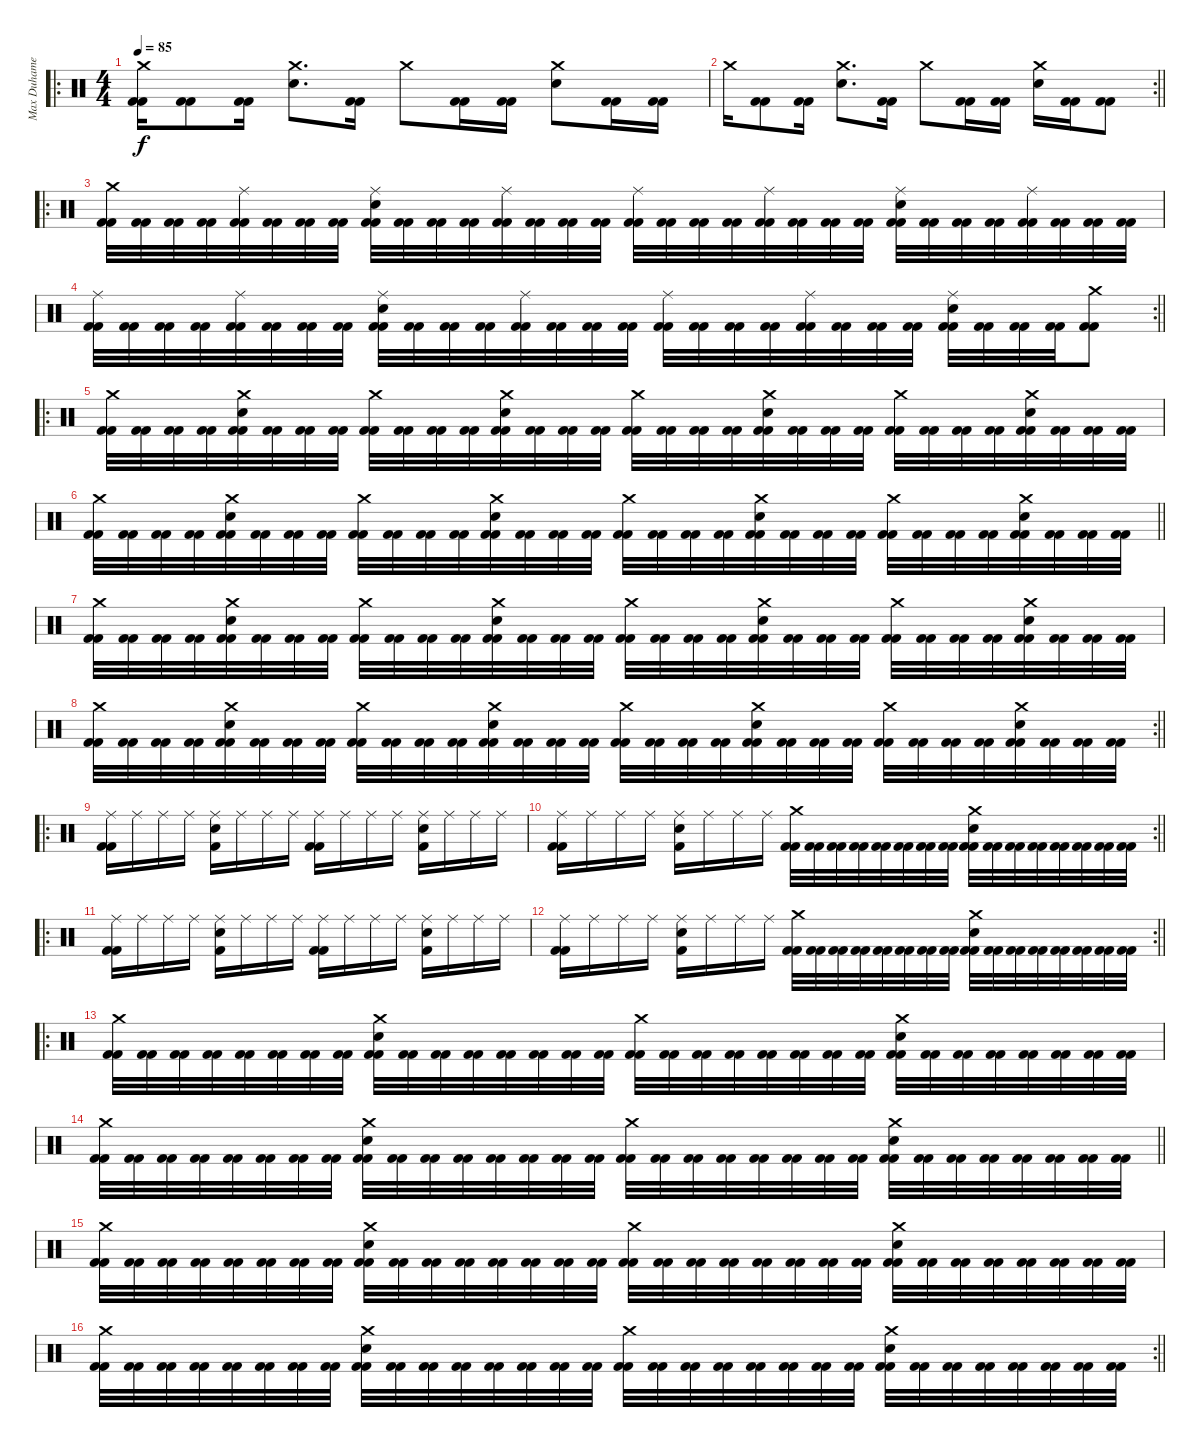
\track ("Max Duhamel" "Max Duhame") {instrument percussion}
\staff {score}
\articulation defaults
\ro
\ts (4 4)
\tempo 85
\clef neutral
\ks c
("Crash medium (hit)" "Kick (hit) 2" "Kick (hit) 2").16{dy f} ("Kick (hit) 2" "Kick (hit) 2").8 ("Kick (hit) 2" "Kick (hit) 2").16 ("Crash medium (hit)" "Snare (hit) 2").8{d} ("Kick (hit) 2" "Kick (hit) 2").16 "Crash medium (hit)".8 ("Kick (hit) 2" "Kick (hit) 2").16 ("Kick (hit) 2" "Kick (hit) 2").16 ("Crash medium (hit)" "Snare (hit) 2").8 ("Kick (hit) 2" "Kick (hit) 2").16 ("Kick (hit) 2" "Kick (hit) 2").16 |
\rc 2
\barLineRight lightlight "Crash medium (hit)".16
("Kick (hit) 2" "Kick (hit) 2").8 ("Kick (hit) 2" "Kick (hit) 2").16 ("Crash medium (hit)" "Snare (hit) 2").8{d} ("Kick (hit) 2" "Kick (hit) 2").16 "Crash medium (hit)".8 ("Kick (hit) 2" "Kick (hit) 2").16 ("Kick (hit) 2" "Kick (hit) 2").16 ("Crash medium (hit)" "Snare (hit) 2").16 ("Kick (hit) 2" "Kick (hit) 2").16 ("Kick (hit) 2" "Kick (hit) 2").8 |
\ro
("Crash medium (hit)" "Kick (hit) 2" "Kick (hit) 2").32 ("Kick (hit) 2" "Kick (hit) 2").32 ("Kick (hit) 2" "Kick (hit) 2").32 ("Kick (hit) 2" "Kick (hit) 2").32 ("Ride (middle)" "Kick (hit) 2" "Kick (hit) 2").32 ("Kick (hit) 2" "Kick (hit) 2").32 ("Kick (hit) 2" "Kick (hit) 2").32 ("Kick (hit) 2" "Kick (hit) 2").32 ("Ride (middle)" "Snare (hit) 2" "Kick (hit) 2" "Kick (hit) 2").32 ("Kick (hit) 2" "Kick (hit) 2").32 ("Kick (hit) 2" "Kick (hit) 2").32 ("Kick (hit) 2" "Kick (hit) 2").32 ("Ride (middle)" "Kick (hit) 2" "Kick (hit) 2").32 ("Kick (hit) 2" "Kick (hit) 2").32 ("Kick (hit) 2" "Kick (hit) 2").32 ("Kick (hit) 2" "Kick (hit) 2").32 ("Ride (middle)" "Kick (hit) 2" "Kick (hit) 2").32 ("Kick (hit) 2" "Kick (hit) 2").32 ("Kick (hit) 2" "Kick (hit) 2").32 ("Kick (hit) 2" "Kick (hit) 2").32 ("Ride (middle)" "Kick (hit) 2" "Kick (hit) 2").32 ("Kick (hit) 2" "Kick (hit) 2").32 ("Kick (hit) 2" "Kick (hit) 2").32 ("Kick (hit) 2" "Kick (hit) 2").32 ("Ride (middle)" "Snare (hit) 2" "Kick (hit) 2" "Kick (hit) 2").32 ("Kick (hit) 2" "Kick (hit) 2").32 ("Kick (hit) 2" "Kick (hit) 2").32 ("Kick (hit) 2" "Kick (hit) 2").32 ("Ride (middle)" "Kick (hit) 2" "Kick (hit) 2").32 ("Kick (hit) 2" "Kick (hit) 2").32 ("Kick (hit) 2" "Kick (hit) 2").32 ("Kick (hit) 2" "Kick (hit) 2").32 |
\rc 2
\barLineRight lightlight
("Ride (middle)" "Kick (hit) 2" "Kick (hit) 2").32 ("Kick (hit) 2" "Kick (hit) 2").32 ("Kick (hit) 2" "Kick (hit) 2").32 ("Kick (hit) 2" "Kick (hit) 2").32 ("Ride (middle)" "Kick (hit) 2" "Kick (hit) 2").32 ("Kick (hit) 2" "Kick (hit) 2").32 ("Kick (hit) 2" "Kick (hit) 2").32 ("Kick (hit) 2" "Kick (hit) 2").32 ("Ride (middle)" "Snare (hit) 2" "Kick (hit) 2" "Kick (hit) 2").32 ("Kick (hit) 2" "Kick (hit) 2").32 ("Kick (hit) 2" "Kick (hit) 2").32 ("Kick (hit) 2" "Kick (hit) 2").32 ("Ride (middle)" "Kick (hit) 2" "Kick (hit) 2").32 ("Kick (hit) 2" "Kick (hit) 2").32 ("Kick (hit) 2" "Kick (hit) 2").32 ("Kick (hit) 2" "Kick (hit) 2").32 ("Ride (middle)" "Kick (hit) 2" "Kick (hit) 2").32 ("Kick (hit) 2" "Kick (hit) 2").32 ("Kick (hit) 2" "Kick (hit) 2").32 ("Kick (hit) 2" "Kick (hit) 2").32 ("Ride (middle)" "Kick (hit) 2" "Kick (hit) 2").32 ("Kick (hit) 2" "Kick (hit) 2").32 ("Kick (hit) 2" "Kick (hit) 2").32 ("Kick (hit) 2" "Kick (hit) 2").32 ("Ride (middle)" "Snare (hit) 2" "Kick (hit) 2" "Kick (hit) 2").32 ("Kick (hit) 2" "Kick (hit) 2").32 ("Kick (hit) 2" "Kick (hit) 2").32 ("Kick (hit) 2" "Kick (hit) 2").32 ("Crash medium (hit)" "Kick (hit) 2" "Kick (hit) 2").8 |
\ro
("Crash medium (hit)" "Kick (hit) 2" "Kick (hit) 2").32 ("Kick (hit) 2" "Kick (hit) 2").32 ("Kick (hit) 2" "Kick (hit) 2").32 ("Kick (hit) 2" "Kick (hit) 2").32 ("Crash medium (hit)" "Snare (hit) 2" "Kick (hit) 2" "Kick (hit) 2").32 ("Kick (hit) 2" "Kick (hit) 2").32 ("Kick (hit) 2" "Kick (hit) 2").32 ("Kick (hit) 2" "Kick (hit) 2").32 ("Crash medium (hit)" "Kick (hit) 2" "Kick (hit) 2").32 ("Kick (hit) 2" "Kick (hit) 2").32 ("Kick (hit) 2" "Kick (hit) 2").32 ("Kick (hit) 2" "Kick (hit) 2").32 ("Crash medium (hit)" "Snare (hit) 2" "Kick (hit) 2" "Kick (hit) 2").32 ("Kick (hit) 2" "Kick (hit) 2").32 ("Kick (hit) 2" "Kick (hit) 2").32 ("Kick (hit) 2" "Kick (hit) 2").32 ("Crash medium (hit)" "Kick (hit) 2" "Kick (hit) 2").32 ("Kick (hit) 2" "Kick (hit) 2").32 ("Kick (hit) 2" "Kick (hit) 2").32 ("Kick (hit) 2" "Kick (hit) 2").32 ("Crash medium (hit)" "Snare (hit) 2" "Kick (hit) 2" "Kick (hit) 2").32 ("Kick (hit) 2" "Kick (hit) 2").32 ("Kick (hit) 2" "Kick (hit) 2").32 ("Kick (hit) 2" "Kick (hit) 2").32 ("Crash medium (hit)" "Kick (hit) 2" "Kick (hit) 2").32 ("Kick (hit) 2" "Kick (hit) 2").32 ("Kick (hit) 2" "Kick (hit) 2").32 ("Kick (hit) 2" "Kick (hit) 2").32 ("Crash medium (hit)" "Snare (hit) 2" "Kick (hit) 2" "Kick (hit) 2").32 ("Kick (hit) 2" "Kick (hit) 2").32 ("Kick (hit) 2" "Kick (hit) 2").32 ("Kick (hit) 2" "Kick (hit) 2").32 |
\barLineRight lightlight
("Crash medium (hit)" "Kick (hit) 2" "Kick (hit) 2").32 ("Kick (hit) 2" "Kick (hit) 2").32 ("Kick (hit) 2" "Kick (hit) 2").32 ("Kick (hit) 2" "Kick (hit) 2").32 ("Crash medium (hit)" "Snare (hit) 2" "Kick (hit) 2" "Kick (hit) 2").32 ("Kick (hit) 2" "Kick (hit) 2").32 ("Kick (hit) 2" "Kick (hit) 2").32 ("Kick (hit) 2" "Kick (hit) 2").32 ("Crash medium (hit)" "Kick (hit) 2" "Kick (hit) 2").32 ("Kick (hit) 2" "Kick (hit) 2").32 ("Kick (hit) 2" "Kick (hit) 2").32 ("Kick (hit) 2" "Kick (hit) 2").32 ("Crash medium (hit)" "Snare (hit) 2" "Kick (hit) 2" "Kick (hit) 2").32 ("Kick (hit) 2" "Kick (hit) 2").32 ("Kick (hit) 2" "Kick (hit) 2").32 ("Kick (hit) 2" "Kick (hit) 2").32 ("Crash medium (hit)" "Kick (hit) 2" "Kick (hit) 2").32 ("Kick (hit) 2" "Kick (hit) 2").32 ("Kick (hit) 2" "Kick (hit) 2").32 ("Kick (hit) 2" "Kick (hit) 2").32 ("Crash medium (hit)" "Snare (hit) 2" "Kick (hit) 2" "Kick (hit) 2").32 ("Kick (hit) 2" "Kick (hit) 2").32 ("Kick (hit) 2" "Kick (hit) 2").32 ("Kick (hit) 2" "Kick (hit) 2").32 ("Crash medium (hit)" "Kick (hit) 2" "Kick (hit) 2").32 ("Kick (hit) 2" "Kick (hit) 2").32 ("Kick (hit) 2" "Kick (hit) 2").32 ("Kick (hit) 2" "Kick (hit) 2").32 ("Crash medium (hit)" "Snare (hit) 2" "Kick (hit) 2" "Kick (hit) 2").32 ("Kick (hit) 2" "Kick (hit) 2").32 ("Kick (hit) 2" "Kick (hit) 2").32 ("Kick (hit) 2" "Kick (hit) 2").32 |
("Crash medium (hit)" "Kick (hit) 2" "Kick (hit) 2").32 ("Kick (hit) 2" "Kick (hit) 2").32 ("Kick (hit) 2" "Kick (hit) 2").32 ("Kick (hit) 2" "Kick (hit) 2").32 ("Crash medium (hit)" "Snare (hit) 2" "Kick (hit) 2" "Kick (hit) 2").32 ("Kick (hit) 2" "Kick (hit) 2").32 ("Kick (hit) 2" "Kick (hit) 2").32 ("Kick (hit) 2" "Kick (hit) 2").32 ("Crash medium (hit)" "Kick (hit) 2" "Kick (hit) 2").32 ("Kick (hit) 2" "Kick (hit) 2").32 ("Kick (hit) 2" "Kick (hit) 2").32 ("Kick (hit) 2" "Kick (hit) 2").32 ("Crash medium (hit)" "Snare (hit) 2" "Kick (hit) 2" "Kick (hit) 2").32 ("Kick (hit) 2" "Kick (hit) 2").32 ("Kick (hit) 2" "Kick (hit) 2").32 ("Kick (hit) 2" "Kick (hit) 2").32 ("Crash medium (hit)" "Kick (hit) 2" "Kick (hit) 2").32 ("Kick (hit) 2" "Kick (hit) 2").32 ("Kick (hit) 2" "Kick (hit) 2").32 ("Kick (hit) 2" "Kick (hit) 2").32 ("Crash medium (hit)" "Snare (hit) 2" "Kick (hit) 2" "Kick (hit) 2").32 ("Kick (hit) 2" "Kick (hit) 2").32 ("Kick (hit) 2" "Kick (hit) 2").32 ("Kick (hit) 2" "Kick (hit) 2").32 ("Crash medium (hit)" "Kick (hit) 2" "Kick (hit) 2").32 ("Kick (hit) 2" "Kick (hit) 2").32 ("Kick (hit) 2" "Kick (hit) 2").32 ("Kick (hit) 2" "Kick (hit) 2").32 ("Crash medium (hit)" "Snare (hit) 2" "Kick (hit) 2" "Kick (hit) 2").32 ("Kick (hit) 2" "Kick (hit) 2").32 ("Kick (hit) 2" "Kick (hit) 2").32 ("Kick (hit) 2" "Kick (hit) 2").32 |
\rc 2
\barLineRight lightlight
("Crash medium (hit)" "Kick (hit) 2" "Kick (hit) 2").32 ("Kick (hit) 2" "Kick (hit) 2").32 ("Kick (hit) 2" "Kick (hit) 2").32 ("Kick (hit) 2" "Kick (hit) 2").32 ("Crash medium (hit)" "Snare (hit) 2" "Kick (hit) 2" "Kick (hit) 2").32 ("Kick (hit) 2" "Kick (hit) 2").32 ("Kick (hit) 2" "Kick (hit) 2").32 ("Kick (hit) 2" "Kick (hit) 2").32 ("Crash medium (hit)" "Kick (hit) 2" "Kick (hit) 2").32 ("Kick (hit) 2" "Kick (hit) 2").32 ("Kick (hit) 2" "Kick (hit) 2").32 ("Kick (hit) 2" "Kick (hit) 2").32 ("Crash medium (hit)" "Snare (hit) 2" "Kick (hit) 2" "Kick (hit) 2").32 ("Kick (hit) 2" "Kick (hit) 2").32 ("Kick (hit) 2" "Kick (hit) 2").32 ("Kick (hit) 2" "Kick (hit) 2").32 ("Crash medium (hit)" "Kick (hit) 2" "Kick (hit) 2").32 ("Kick (hit) 2" "Kick (hit) 2").32 ("Kick (hit) 2" "Kick (hit) 2").32 ("Kick (hit) 2" "Kick (hit) 2").32 ("Crash medium (hit)" "Snare (hit) 2" "Kick (hit) 2" "Kick (hit) 2").32 ("Kick (hit) 2" "Kick (hit) 2").32 ("Kick (hit) 2" "Kick (hit) 2").32 ("Kick (hit) 2" "Kick (hit) 2").32 ("Crash medium (hit)" "Kick (hit) 2" "Kick (hit) 2").32 ("Kick (hit) 2" "Kick (hit) 2").32 ("Kick (hit) 2" "Kick (hit) 2").32 ("Kick (hit) 2" "Kick (hit) 2").32 ("Crash medium (hit)" "Snare (hit) 2" "Kick (hit) 2" "Kick (hit) 2").32 ("Kick (hit) 2" "Kick (hit) 2").32 ("Kick (hit) 2" "Kick (hit) 2").32 ("Kick (hit) 2" "Kick (hit) 2").32 |
\ro
("Kick (hit) 2" "Kick (hit) 2" "Ride (middle)").16 "Ride (middle)".16 "Ride (middle)".16 "Ride (middle)".16 ("Snare (hit) 2" "Kick (hit) 2" "Ride (middle)").16 "Ride (middle)".16 "Ride (middle)".16 "Ride (middle)".16 ("Kick (hit) 2" "Kick (hit) 2" "Ride (middle)").16 "Ride (middle)".16 "Ride (middle)".16 "Ride (middle)".16 ("Snare (hit) 2" "Kick (hit) 2" "Ride (middle)").16 "Ride (middle)".16 "Ride (middle)".16 "Ride (middle)".16 |
\rc 2
\barLineRight lightlight
("Kick (hit) 2" "Kick (hit) 2" "Ride (middle)").16 "Ride (middle)".16 "Ride (middle)".16 "Ride (middle)".16 ("Snare (hit) 2" "Kick (hit) 2" "Ride (middle)").16 "Ride (middle)".16 "Ride (middle)".16 "Ride (middle)".16 ("Crash medium (hit)" "Kick (hit) 2" "Kick (hit) 2").32 ("Kick (hit) 2" "Kick (hit) 2").32 ("Kick (hit) 2" "Kick (hit) 2").32 ("Kick (hit) 2" "Kick (hit) 2").32 ("Kick (hit) 2" "Kick (hit) 2").32 ("Kick (hit) 2" "Kick (hit) 2").32 ("Kick (hit) 2" "Kick (hit) 2").32 ("Kick (hit) 2" "Kick (hit) 2").32 ("Crash medium (hit)" "Snare (hit) 2" "Kick (hit) 2" "Kick (hit) 2").32 ("Kick (hit) 2" "Kick (hit) 2").32 ("Kick (hit) 2" "Kick (hit) 2").32 ("Kick (hit) 2" "Kick (hit) 2").32 ("Kick (hit) 2" "Kick (hit) 2").32 ("Kick (hit) 2" "Kick (hit) 2").32 ("Kick (hit) 2" "Kick (hit) 2").32 ("Kick (hit) 2" "Kick (hit) 2").32 |
\ro
("Kick (hit) 2" "Kick (hit) 2" "Ride (middle)").16 "Ride (middle)".16 "Ride (middle)".16 "Ride (middle)".16 ("Snare (hit) 2" "Kick (hit) 2" "Ride (middle)").16 "Ride (middle)".16 "Ride (middle)".16 "Ride (middle)".16 ("Kick (hit) 2" "Kick (hit) 2" "Ride (middle)").16 "Ride (middle)".16 "Ride (middle)".16 "Ride (middle)".16 ("Snare (hit) 2" "Kick (hit) 2" "Ride (middle)").16 "Ride (middle)".16 "Ride (middle)".16 "Ride (middle)".16 |
\rc 2
\barLineRight lightlight
("Kick (hit) 2" "Kick (hit) 2" "Ride (middle)").16 "Ride (middle)".16 "Ride (middle)".16 "Ride (middle)".16 ("Snare (hit) 2" "Kick (hit) 2" "Ride (middle)").16 "Ride (middle)".16 "Ride (middle)".16 "Ride (middle)".16 ("Crash medium (hit)" "Kick (hit) 2" "Kick (hit) 2").32 ("Kick (hit) 2" "Kick (hit) 2").32 ("Kick (hit) 2" "Kick (hit) 2").32 ("Kick (hit) 2" "Kick (hit) 2").32 ("Kick (hit) 2" "Kick (hit) 2").32 ("Kick (hit) 2" "Kick (hit) 2").32 ("Kick (hit) 2" "Kick (hit) 2").32 ("Kick (hit) 2" "Kick (hit) 2").32 ("Crash medium (hit)" "Snare (hit) 2" "Kick (hit) 2" "Kick (hit) 2").32 ("Kick (hit) 2" "Kick (hit) 2").32 ("Kick (hit) 2" "Kick (hit) 2").32 ("Kick (hit) 2" "Kick (hit) 2").32 ("Kick (hit) 2" "Kick (hit) 2").32 ("Kick (hit) 2" "Kick (hit) 2").32 ("Kick (hit) 2" "Kick (hit) 2").32 ("Kick (hit) 2" "Kick (hit) 2").32 |
\ro
("Crash medium (hit)" "Kick (hit) 2" "Kick (hit) 2").32 ("Kick (hit) 2" "Kick (hit) 2").32 ("Kick (hit) 2" "Kick (hit) 2").32 ("Kick (hit) 2" "Kick (hit) 2").32 ("Kick (hit) 2" "Kick (hit) 2").32 ("Kick (hit) 2" "Kick (hit) 2").32 ("Kick (hit) 2" "Kick (hit) 2").32 ("Kick (hit) 2" "Kick (hit) 2").32 ("Crash medium (hit)" "Snare (hit) 2" "Kick (hit) 2" "Kick (hit) 2").32 ("Kick (hit) 2" "Kick (hit) 2").32 ("Kick (hit) 2" "Kick (hit) 2").32 ("Kick (hit) 2" "Kick (hit) 2").32 ("Kick (hit) 2" "Kick (hit) 2").32 ("Kick (hit) 2" "Kick (hit) 2").32 ("Kick (hit) 2" "Kick (hit) 2").32 ("Kick (hit) 2" "Kick (hit) 2").32 ("Crash medium (hit)" "Kick (hit) 2" "Kick (hit) 2").32 ("Kick (hit) 2" "Kick (hit) 2").32 ("Kick (hit) 2" "Kick (hit) 2").32 ("Kick (hit) 2" "Kick (hit) 2").32 ("Kick (hit) 2" "Kick (hit) 2").32 ("Kick (hit) 2" "Kick (hit) 2").32 ("Kick (hit) 2" "Kick (hit) 2").32 ("Kick (hit) 2" "Kick (hit) 2").32 ("Crash medium (hit)" "Snare (hit) 2" "Kick (hit) 2" "Kick (hit) 2").32 ("Kick (hit) 2" "Kick (hit) 2").32 ("Kick (hit) 2" "Kick (hit) 2").32 ("Kick (hit) 2" "Kick (hit) 2").32 ("Kick (hit) 2" "Kick (hit) 2").32 ("Kick (hit) 2" "Kick (hit) 2").32 ("Kick (hit) 2" "Kick (hit) 2").32 ("Kick (hit) 2" "Kick (hit) 2").32 |
\barLineRight lightlight
("Crash medium (hit)" "Kick (hit) 2" "Kick (hit) 2").32 ("Kick (hit) 2" "Kick (hit) 2").32 ("Kick (hit) 2" "Kick (hit) 2").32 ("Kick (hit) 2" "Kick (hit) 2").32 ("Kick (hit) 2" "Kick (hit) 2").32 ("Kick (hit) 2" "Kick (hit) 2").32 ("Kick (hit) 2" "Kick (hit) 2").32 ("Kick (hit) 2" "Kick (hit) 2").32 ("Crash medium (hit)" "Snare (hit) 2" "Kick (hit) 2" "Kick (hit) 2").32 ("Kick (hit) 2" "Kick (hit) 2").32 ("Kick (hit) 2" "Kick (hit) 2").32 ("Kick (hit) 2" "Kick (hit) 2").32 ("Kick (hit) 2" "Kick (hit) 2").32 ("Kick (hit) 2" "Kick (hit) 2").32 ("Kick (hit) 2" "Kick (hit) 2").32 ("Kick (hit) 2" "Kick (hit) 2").32 ("Crash medium (hit)" "Kick (hit) 2" "Kick (hit) 2").32 ("Kick (hit) 2" "Kick (hit) 2").32 ("Kick (hit) 2" "Kick (hit) 2").32 ("Kick (hit) 2" "Kick (hit) 2").32 ("Kick (hit) 2" "Kick (hit) 2").32 ("Kick (hit) 2" "Kick (hit) 2").32 ("Kick (hit) 2" "Kick (hit) 2").32 ("Kick (hit) 2" "Kick (hit) 2").32 ("Crash medium (hit)" "Snare (hit) 2" "Kick (hit) 2" "Kick (hit) 2").32 ("Kick (hit) 2" "Kick (hit) 2").32 ("Kick (hit) 2" "Kick (hit) 2").32 ("Kick (hit) 2" "Kick (hit) 2").32 ("Kick (hit) 2" "Kick (hit) 2").32 ("Kick (hit) 2" "Kick (hit) 2").32 ("Kick (hit) 2" "Kick (hit) 2").32 ("Kick (hit) 2" "Kick (hit) 2").32 |
("Crash medium (hit)" "Kick (hit) 2" "Kick (hit) 2").32 ("Kick (hit) 2" "Kick (hit) 2").32 ("Kick (hit) 2" "Kick (hit) 2").32 ("Kick (hit) 2" "Kick (hit) 2").32 ("Kick (hit) 2" "Kick (hit) 2").32 ("Kick (hit) 2" "Kick (hit) 2").32 ("Kick (hit) 2" "Kick (hit) 2").32 ("Kick (hit) 2" "Kick (hit) 2").32 ("Crash medium (hit)" "Snare (hit) 2" "Kick (hit) 2" "Kick (hit) 2").32 ("Kick (hit) 2" "Kick (hit) 2").32 ("Kick (hit) 2" "Kick (hit) 2").32 ("Kick (hit) 2" "Kick (hit) 2").32 ("Kick (hit) 2" "Kick (hit) 2").32 ("Kick (hit) 2" "Kick (hit) 2").32 ("Kick (hit) 2" "Kick (hit) 2").32 ("Kick (hit) 2" "Kick (hit) 2").32 ("Crash medium (hit)" "Kick (hit) 2" "Kick (hit) 2").32 ("Kick (hit) 2" "Kick (hit) 2").32 ("Kick (hit) 2" "Kick (hit) 2").32 ("Kick (hit) 2" "Kick (hit) 2").32 ("Kick (hit) 2" "Kick (hit) 2").32 ("Kick (hit) 2" "Kick (hit) 2").32 ("Kick (hit) 2" "Kick (hit) 2").32 ("Kick (hit) 2" "Kick (hit) 2").32 ("Crash medium (hit)" "Snare (hit) 2" "Kick (hit) 2" "Kick (hit) 2").32 ("Kick (hit) 2" "Kick (hit) 2").32 ("Kick (hit) 2" "Kick (hit) 2").32 ("Kick (hit) 2" "Kick (hit) 2").32 ("Kick (hit) 2" "Kick (hit) 2").32 ("Kick (hit) 2" "Kick (hit) 2").32 ("Kick (hit) 2" "Kick (hit) 2").32 ("Kick (hit) 2" "Kick (hit) 2").32 |
\rc 2
\barLineRight lightlight
("Crash medium (hit)" "Kick (hit) 2" "Kick (hit) 2").32 ("Kick (hit) 2" "Kick (hit) 2").32 ("Kick (hit) 2" "Kick (hit) 2").32 ("Kick (hit) 2" "Kick (hit) 2").32 ("Kick (hit) 2" "Kick (hit) 2").32 ("Kick (hit) 2" "Kick (hit) 2").32 ("Kick (hit) 2" "Kick (hit) 2").32 ("Kick (hit) 2" "Kick (hit) 2").32 ("Crash medium (hit)" "Snare (hit) 2" "Kick (hit) 2" "Kick (hit) 2").32 ("Kick (hit) 2" "Kick (hit) 2").32 ("Kick (hit) 2" "Kick (hit) 2").32 ("Kick (hit) 2" "Kick (hit) 2").32 ("Kick (hit) 2" "Kick (hit) 2").32 ("Kick (hit) 2" "Kick (hit) 2").32 ("Kick (hit) 2" "Kick (hit) 2").32 ("Kick (hit) 2" "Kick (hit) 2").32 ("Crash medium (hit)" "Kick (hit) 2" "Kick (hit) 2").32 ("Kick (hit) 2" "Kick (hit) 2").32 ("Kick (hit) 2" "Kick (hit) 2").32 ("Kick (hit) 2" "Kick (hit) 2").32 ("Kick (hit) 2" "Kick (hit) 2").32 ("Kick (hit) 2" "Kick (hit) 2").32 ("Kick (hit) 2" "Kick (hit) 2").32 ("Kick (hit) 2" "Kick (hit) 2").32 ("Crash medium (hit)" "Snare (hit) 2" "Kick (hit) 2" "Kick (hit) 2").32 ("Kick (hit) 2" "Kick (hit) 2").32 ("Kick (hit) 2" "Kick (hit) 2").32 ("Kick (hit) 2" "Kick (hit) 2").32 ("Kick (hit) 2" "Kick (hit) 2").32 ("Kick (hit) 2" "Kick (hit) 2").32 ("Kick (hit) 2" "Kick (hit) 2").32 ("Kick (hit) 2" "Kick (hit) 2").32
